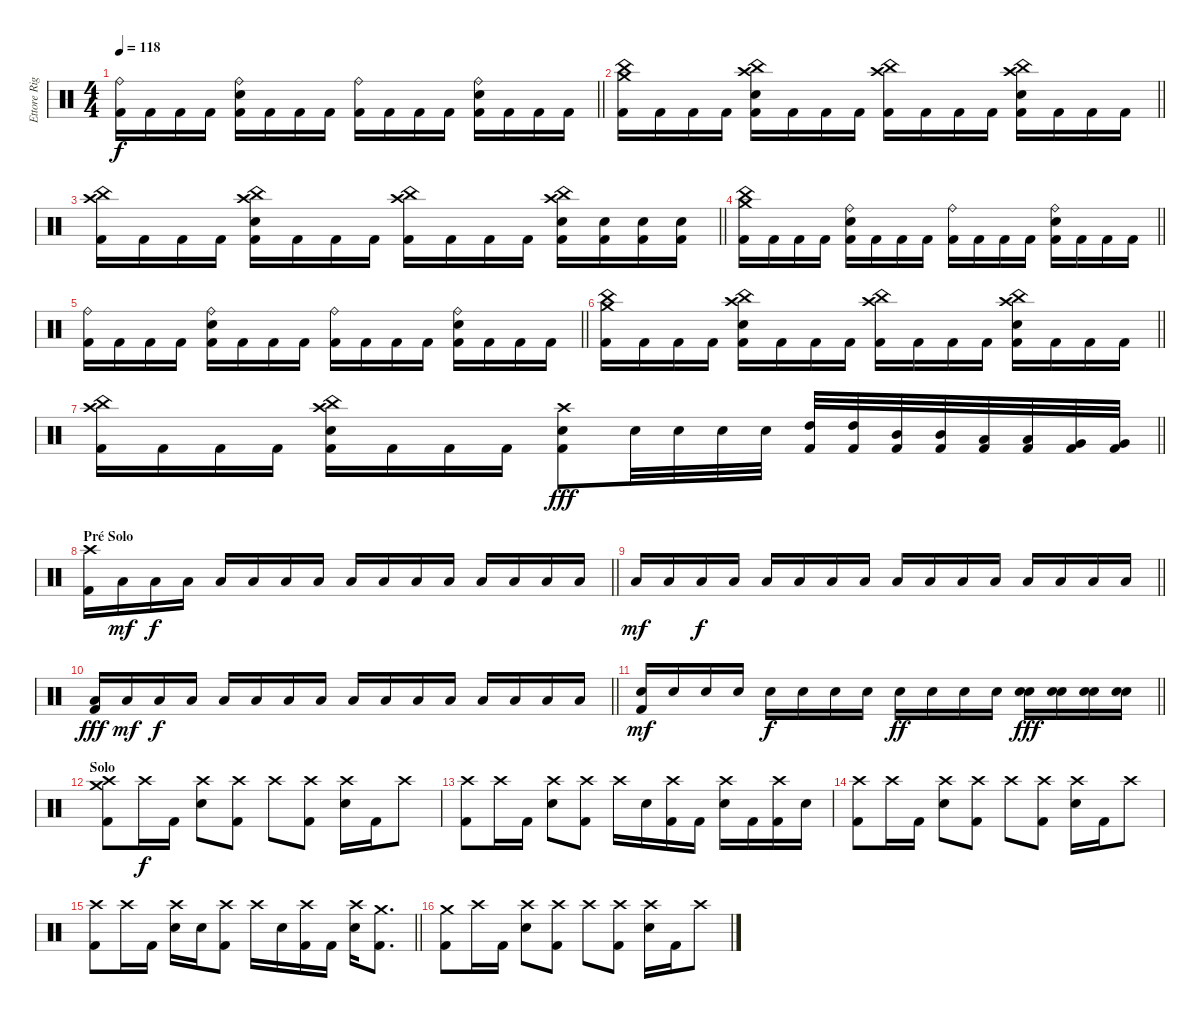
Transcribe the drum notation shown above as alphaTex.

\track ("Ettore Rigotti" "Ettore Rig") {instrument percussion}
\staff {score}
\articulation defaults
\ts (4 4)
\tempo 118
\clef neutral
\barLineRight lightlight
\ks c
("Ride (bell)" "Kick (hit) 2").16{dy f} "Kick (hit) 2".16 "Kick (hit) 2".16 "Kick (hit) 2".16 ("Ride (bell)" "Electric Snare (hit)" "Kick (hit) 2").16 "Kick (hit) 2".16 "Kick (hit) 2".16 "Kick (hit) 2".16 ("Ride (bell)" "Kick (hit) 2").16 "Kick (hit) 2".16 "Kick (hit) 2".16 "Kick (hit) 2".16 ("Ride (bell)" "Electric Snare (hit)" "Kick (hit) 2").16 "Kick (hit) 2".16 "Kick (hit) 2".16 "Kick (hit) 2".16 |
\barLineRight lightlight
("Crash medium (hit)" "China (hit)" "Kick (hit) 2").16 "Kick (hit) 2".16 "Kick (hit) 2".16 "Kick (hit) 2".16 ("China (hit)" "Crash high (hit)" "Electric Snare (hit)" "Kick (hit) 2").16 "Kick (hit) 2".16 "Kick (hit) 2".16 "Kick (hit) 2".16 ("China (hit)" "Crash high (hit)" "Kick (hit) 2").16 "Kick (hit) 2".16 "Kick (hit) 2".16 "Kick (hit) 2".16 ("Crash high (hit)" "China (hit)" "Electric Snare (hit)" "Kick (hit) 2").16 "Kick (hit) 2".16 "Kick (hit) 2".16 "Kick (hit) 2".16 |
\barLineRight lightlight
("Crash high (hit)" "China (hit)" "Kick (hit) 2").16 "Kick (hit) 2".16 "Kick (hit) 2".16 "Kick (hit) 2".16 ("Crash high (hit)" "China (hit)" "Electric Snare (hit)" "Kick (hit) 2").16 "Kick (hit) 2".16 "Kick (hit) 2".16 "Kick (hit) 2".16 ("Crash high (hit)" "China (hit)" "Kick (hit) 2").16 "Kick (hit) 2".16 "Kick (hit) 2".16 "Kick (hit) 2".16 ("Crash high (hit)" "China (hit)" "Electric Snare (hit)" "Kick (hit) 2").16 ("Electric Snare (hit)" "Kick (hit) 2").16 ("Electric Snare (hit)" "Kick (hit) 2").16 ("Electric Snare (hit)" "Kick (hit) 2").16 |
\barLineRight lightlight
("Crash medium (hit)" "China (hit)" "Kick (hit) 2").16 "Kick (hit) 2".16 "Kick (hit) 2".16 "Kick (hit) 2".16 ("Ride (bell)" "Electric Snare (hit)" "Kick (hit) 2").16 "Kick (hit) 2".16 "Kick (hit) 2".16 "Kick (hit) 2".16 ("Ride (bell)" "Kick (hit) 2").16 "Kick (hit) 2".16 "Kick (hit) 2".16 "Kick (hit) 2".16 ("Ride (bell)" "Electric Snare (hit)" "Kick (hit) 2").16 "Kick (hit) 2".16 "Kick (hit) 2".16 "Kick (hit) 2".16 |
\barLineRight lightlight
("Ride (bell)" "Kick (hit) 2").16 "Kick (hit) 2".16 "Kick (hit) 2".16 "Kick (hit) 2".16 ("Ride (bell)" "Electric Snare (hit)" "Kick (hit) 2").16 "Kick (hit) 2".16 "Kick (hit) 2".16 "Kick (hit) 2".16 ("Ride (bell)" "Kick (hit) 2").16 "Kick (hit) 2".16 "Kick (hit) 2".16 "Kick (hit) 2".16 ("Ride (bell)" "Electric Snare (hit)" "Kick (hit) 2").16 "Kick (hit) 2".16 "Kick (hit) 2".16 "Kick (hit) 2".16 |
\barLineRight lightlight
("Crash medium (hit)" "China (hit)" "Kick (hit) 2").16 "Kick (hit) 2".16 "Kick (hit) 2".16 "Kick (hit) 2".16 ("China (hit)" "Crash high (hit)" "Electric Snare (hit)" "Kick (hit) 2").16 "Kick (hit) 2".16 "Kick (hit) 2".16 "Kick (hit) 2".16 ("China (hit)" "Crash high (hit)" "Kick (hit) 2").16 "Kick (hit) 2".16 "Kick (hit) 2".16 "Kick (hit) 2".16 ("Crash high (hit)" "China (hit)" "Electric Snare (hit)" "Kick (hit) 2").16 "Kick (hit) 2".16 "Kick (hit) 2".16 "Kick (hit) 2".16 |
\barLineRight lightlight
("Crash high (hit)" "China (hit)" "Kick (hit) 2").16 "Kick (hit) 2".16 "Kick (hit) 2".16 "Kick (hit) 2".16 ("Crash high (hit)" "China (hit)" "Electric Snare (hit)" "Kick (hit) 2").16 "Kick (hit) 2".16 "Kick (hit) 2".16 "Kick (hit) 2".16 ("Crash high (hit)" "Electric Snare (hit)" "Kick (hit) 2").8{dy fff} "Electric Snare (hit)".32 "Electric Snare (hit)".32 "Electric Snare (hit)".32 "Electric Snare (hit)".32 ("High Tom (hit)" "Kick (hit) 2").32 ("High Tom (hit)" "Kick (hit) 2").32 ("Mid Tom (hit)" "Kick (hit) 2").32 ("Mid Tom (hit)" "Kick (hit) 2").32 ("Low Tom (hit)" "Kick (hit) 2").32 ("Low Tom (hit)" "Kick (hit) 2").32 ("Very Low Tom (hit)" "Kick (hit) 2").32 ("Very Low Tom (hit)" "Kick (hit) 2").32 |
\section ("" "Pré Solo")
\barLineRight lightlight
("Crash high (hit)" "Kick (hit) 2").16 "Low Tom (hit)".16{dy mf} "Low Tom (hit)".16{dy f} "Low Tom (hit)".16 "Low Tom (hit)".16 "Low Tom (hit)".16 "Low Tom (hit)".16 "Low Tom (hit)".16 "Low Tom (hit)".16 "Low Tom (hit)".16 "Low Tom (hit)".16 "Low Tom (hit)".16 "Low Tom (hit)".16 "Low Tom (hit)".16 "Low Tom (hit)".16 "Low Tom (hit)".16 |
\barLineRight lightlight "Low Tom (hit)".16{dy mf} "Low Tom (hit)".16 "Low Tom (hit)".16{dy f} "Low Tom (hit)".16 "Low Tom (hit)".16 "Low Tom (hit)".16 "Low Tom (hit)".16 "Low Tom (hit)".16 "Low Tom (hit)".16 "Low Tom (hit)".16 "Low Tom (hit)".16 "Low Tom (hit)".16 "Low Tom (hit)".16 "Low Tom (hit)".16 "Low Tom (hit)".16 "Low Tom (hit)".16
|
\barLineRight lightlight
("Low Tom (hit)" "Kick (hit) 2").16{dy fff} "Low Tom (hit)".16{dy mf} "Low Tom (hit)".16{dy f} "Low Tom (hit)".16 "Low Tom (hit)".16 "Low Tom (hit)".16 "Low Tom (hit)".16 "Low Tom (hit)".16 "Low Tom (hit)".16 "Low Tom (hit)".16 "Low Tom (hit)".16 "Low Tom (hit)".16 "Low Tom (hit)".16 "Low Tom (hit)".16 "Low Tom (hit)".16 "Low Tom (hit)".16 |
\barLineRight lightlight
("Electric Snare (hit)" "Kick (hit) 2").16{dy mf} "Electric Snare (hit)".16 "Electric Snare (hit)".16 "Electric Snare (hit)".16 "Electric Snare (hit)".16{dy f} "Electric Snare (hit)".16 "Electric Snare (hit)".16 "Electric Snare (hit)".16 "Electric Snare (hit)".16{dy ff} "Electric Snare (hit)".16 "Electric Snare (hit)".16 "Electric Snare (hit)".16 ("Electric Snare (hit)" "Electric Snare (hit)").16{dy fff} ("Electric Snare (hit)" "Electric Snare (hit)").16 ("Electric Snare (hit)" "Electric Snare (hit)").16 ("Electric Snare (hit)" "Electric Snare (hit)").16 |
\section ("" "Solo")
("Crash medium (hit)" "Crash high (hit)" "Kick (hit) 2").8 "Crash high (hit)".16{dy f} "Kick (hit) 2".16 ("Crash high (hit)" "Electric Snare (hit)").8 ("Crash high (hit)" "Kick (hit) 2").8 "Crash high (hit)".8 ("Crash high (hit)" "Kick (hit) 2").8 ("Crash high (hit)" "Electric Snare (hit)").16 "Kick (hit) 2".16 "Crash high (hit)".8 |
("Crash high (hit)" "Kick (hit) 2").8 "Crash high (hit)".16 "Kick (hit) 2".16 ("Crash high (hit)" "Electric Snare (hit)").8 ("Crash high (hit)" "Kick (hit) 2").8 "Crash high (hit)".16 "Electric Snare (hit)".16 ("Crash high (hit)" "Kick (hit) 2").16 "Kick (hit) 2".16 ("Crash high (hit)" "Electric Snare (hit)").16 "Kick (hit) 2".16 ("Crash high (hit)" "Kick (hit) 2").16 "Electric Snare (hit)".16 |
("Crash high (hit)" "Kick (hit) 2").8 "Crash high (hit)".16 "Kick (hit) 2".16 ("Crash high (hit)" "Electric Snare (hit)").8 ("Crash high (hit)" "Kick (hit) 2").8 "Crash high (hit)".8 ("Crash high (hit)" "Kick (hit) 2").8 ("Crash high (hit)" "Electric Snare (hit)").16 "Kick (hit) 2".16 "Crash high (hit)".8 |
\barLineRight lightlight
("Crash high (hit)" "Kick (hit) 2").8 "Crash high (hit)".16 "Kick (hit) 2".16 ("Crash high (hit)" "Electric Snare (hit)").16 "Electric Snare (hit)".16 ("Crash high (hit)" "Kick (hit) 2").8 "Crash high (hit)".16 "Electric Snare (hit)".16 ("Crash high (hit)" "Kick (hit) 2").16 "Kick (hit) 2".16 ("Crash high (hit)" "Electric Snare (hit)").16 ("Crash medium (hit)" "Kick (hit) 2").8{d} |
("Crash medium (hit)" "Kick (hit) 2").8 "Crash high (hit)".16 "Kick (hit) 2".16 ("Crash high (hit)" "Electric Snare (hit)").8 ("Crash high (hit)" "Kick (hit) 2").8 "Crash high (hit)".8 ("Crash high (hit)" "Kick (hit) 2").8 ("Crash high (hit)" "Electric Snare (hit)").16 "Kick (hit) 2".16 "Crash high (hit)".8
